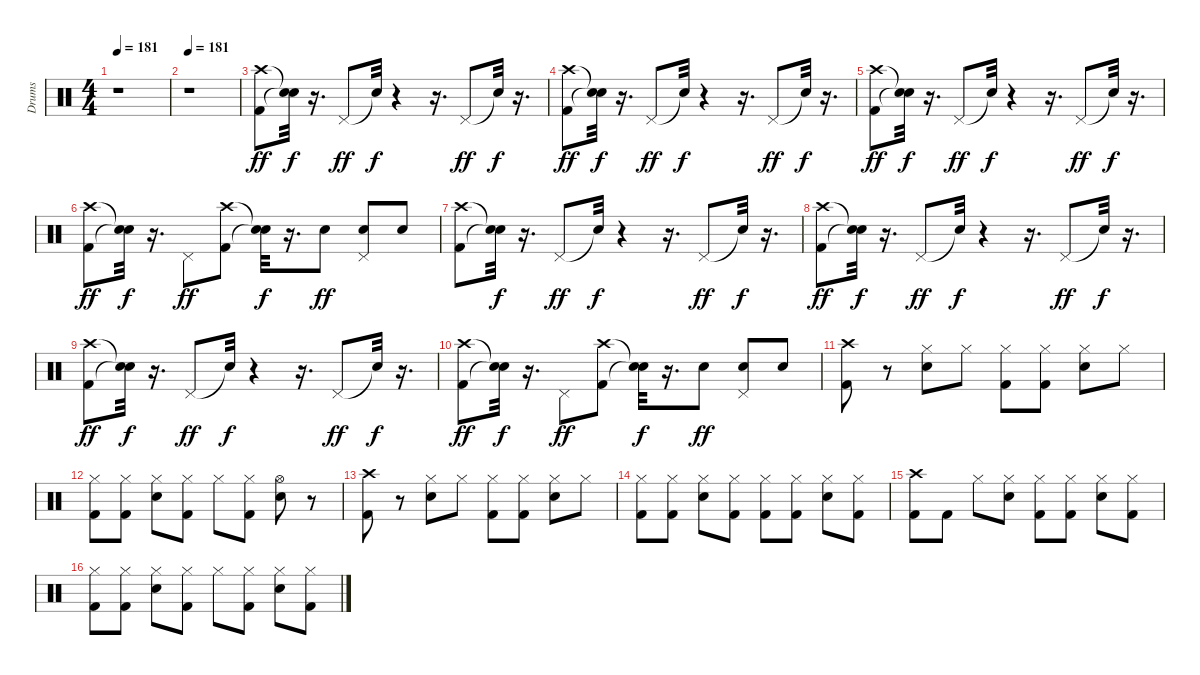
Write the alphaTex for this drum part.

\track ("Drums" "Drums") {instrument percussion}
\staff {score}
\articulation defaults
\ts (4 4)
\tempo 181
\clef neutral
\ks c
r.1{dy ff} |
\tempo 181
r.1 |
("Kick (hit) 2" "Crash high (hit)").8 ("Snare (hit)"{t} "Snare (hit)"{t}).32{dy f} r.16{d} "Pedal Hi-Hat (hit)".8{dy ff} "Snare (hit)"{t}.32{dy f} r.4 r.16{d} "Pedal Hi-Hat (hit)".8{dy ff} "Snare (hit)"{t}.32{dy f} r.16{d} |
("Kick (hit) 2" "Crash high (hit)").8{dy ff} ("Snare (hit)"{t} "Snare (hit)"{t}).32{dy f} r.16{d} "Pedal Hi-Hat (hit)".8{dy ff} "Snare (hit)"{t}.32{dy f} r.4 r.16{d} "Pedal Hi-Hat (hit)".8{dy ff} "Snare (hit)"{t}.32{dy f} r.16{d} |
("Kick (hit) 2" "Crash high (hit)").8{dy ff} ("Snare (hit)"{t} "Snare (hit)"{t}).32{dy f} r.16{d} "Pedal Hi-Hat (hit)".8{dy ff} "Snare (hit)"{t}.32{dy f} r.4 r.16{d} "Pedal Hi-Hat (hit)".8{dy ff} "Snare (hit)"{t}.32{dy f} r.16{d} |
("Kick (hit) 2" "Crash high (hit)").8{dy ff} ("Snare (hit)"{t} "Snare (hit)"{t}).32{dy f} r.16{d} "Pedal Hi-Hat (hit)".8{dy ff} ("Kick (hit) 2" "Crash high (hit)").8 ("Snare (hit)"{t} "Snare (hit)"{t}).32{dy f} r.16{d} "Snare (hit) 2".8{dy ff} ("Snare (hit) 2" "Pedal Hi-Hat (hit)").8 "Snare (hit) 2".8 |
("Kick (hit) 2" "Crash high (hit)").8 ("Snare (hit)"{t} "Snare (hit)"{t}).32{dy f} r.16{d} "Pedal Hi-Hat (hit)".8{dy ff} "Snare (hit)"{t}.32{dy f} r.4 r.16{d} "Pedal Hi-Hat (hit)".8{dy ff} "Snare (hit)"{t}.32{dy f} r.16{d} |
("Kick (hit) 2" "Crash high (hit)").8{dy ff} ("Snare (hit)"{t} "Snare (hit)"{t}).32{dy f} r.16{d} "Pedal Hi-Hat (hit)".8{dy ff} "Snare (hit)"{t}.32{dy f} r.4 r.16{d} "Pedal Hi-Hat (hit)".8{dy ff} "Snare (hit)"{t}.32{dy f} r.16{d} |
("Kick (hit) 2" "Crash high (hit)").8{dy ff} ("Snare (hit)"{t} "Snare (hit)"{t}).32{dy f} r.16{d} "Pedal Hi-Hat (hit)".8{dy ff} "Snare (hit)"{t}.32{dy f} r.4 r.16{d} "Pedal Hi-Hat (hit)".8{dy ff} "Snare (hit)"{t}.32{dy f} r.16{d} |
("Kick (hit) 2" "Crash high (hit)").8{dy ff} ("Snare (hit)"{t} "Snare (hit)"{t}).32{dy f} r.16{d} "Pedal Hi-Hat (hit)".8{dy ff} ("Kick (hit) 2" "Crash high (hit)").8 ("Snare (hit)"{t} "Snare (hit)"{t}).32{dy f} r.16{d} "Snare (hit) 2".8{dy ff} ("Snare (hit) 2" "Pedal Hi-Hat (hit)").8 "Snare (hit) 2".8 |
("Kick (hit) 2" "Crash high (hit)").8 r.8 ("Snare (hit) 2" "Hi-Hat (closed)").8 "Hi-Hat (closed)".8 ("Kick (hit) 2" "Hi-Hat (closed)").8 ("Kick (hit) 2" "Hi-Hat (closed)").8 ("Snare (hit) 2" "Hi-Hat (closed)").8 "Hi-Hat (closed)".8 |
("Kick (hit) 2" "Hi-Hat (closed)").8 ("Kick (hit) 2" "Hi-Hat (closed)").8 ("Snare (hit) 2" "Hi-Hat (closed)").8 ("Kick (hit) 2" "Hi-Hat (closed)").8 "Hi-Hat (closed)".8 ("Kick (hit) 2" "Hi-Hat (closed)").8 ("Snare (hit) 2" "Hi-Hat (open)").8 r.8 |
("Kick (hit) 2" "Crash high (hit)").8 r.8 ("Snare (hit) 2" "Hi-Hat (closed)").8 "Hi-Hat (closed)".8 ("Kick (hit) 2" "Hi-Hat (closed)").8 ("Kick (hit) 2" "Hi-Hat (closed)").8 ("Snare (hit) 2" "Hi-Hat (closed)").8 "Hi-Hat (closed)".8 |
("Kick (hit) 2" "Hi-Hat (closed)").8 ("Kick (hit) 2" "Hi-Hat (closed)").8 ("Snare (hit) 2" "Hi-Hat (closed)").8 ("Kick (hit) 2" "Hi-Hat (closed)").8 ("Kick (hit) 2" "Hi-Hat (closed)").8 ("Kick (hit) 2" "Hi-Hat (closed)").8 ("Snare (hit) 2" "Hi-Hat (closed)").8 ("Kick (hit) 2" "Hi-Hat (closed)").8 |
("Kick (hit) 2" "Crash high (hit)").8 "Kick (hit) 2".8 "Hi-Hat (closed)".8 ("Snare (hit) 2" "Hi-Hat (closed)").8 ("Kick (hit) 2" "Hi-Hat (closed)").8 ("Kick (hit) 2" "Hi-Hat (closed)").8 ("Snare (hit) 2" "Hi-Hat (closed)").8 ("Kick (hit) 2" "Hi-Hat (closed)").8 |
("Kick (hit) 2" "Hi-Hat (closed)").8 ("Kick (hit) 2" "Hi-Hat (closed)").8 ("Snare (hit) 2" "Hi-Hat (closed)").8 ("Kick (hit) 2" "Hi-Hat (closed)").8 "Hi-Hat (closed)".8 ("Kick (hit) 2" "Hi-Hat (closed)").8 ("Snare (hit) 2" "Hi-Hat (closed)").8 ("Kick (hit) 2" "Hi-Hat (closed)").8
